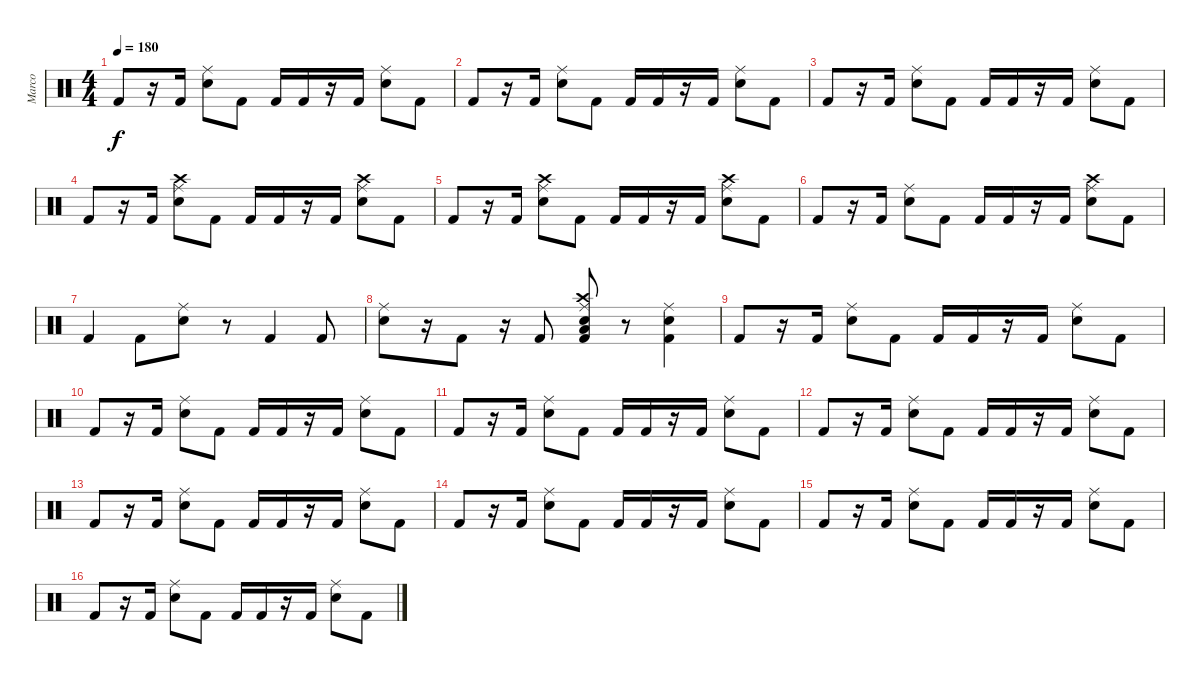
\track ("Marco" "Marco") {instrument percussion}
\staff {score}
\articulation defaults
\ts (4 4)
\tempo 180
\clef neutral
\ks c "Kick (hit) 2".8{dy f}
r.16 "Kick (hit) 2".16 ("Electric Snare (hit)" "Ride (middle)").8 "Kick (hit) 2".8 "Kick (hit) 2".16 "Kick (hit) 2".16 r.16 "Kick (hit) 2".16 ("Electric Snare (hit)" "Ride (middle)").8 "Kick (hit) 2".8 |
"Kick (hit) 2".8 r.16 "Kick (hit) 2".16 ("Electric Snare (hit)" "Ride (middle)").8 "Kick (hit) 2".8 "Kick (hit) 2".16 "Kick (hit) 2".16 r.16 "Kick (hit) 2".16 ("Electric Snare (hit)" "Ride (middle)").8 "Kick (hit) 2".8 |
"Kick (hit) 2".8 r.16 "Kick (hit) 2".16 ("Electric Snare (hit)" "Ride (middle)").8 "Kick (hit) 2".8 "Kick (hit) 2".16 "Kick (hit) 2".16 r.16 "Kick (hit) 2".16 ("Electric Snare (hit)" "Ride (middle)").8 "Kick (hit) 2".8 |
"Kick (hit) 2".8 r.16 "Kick (hit) 2".16 ("Electric Snare (hit)" "Ride (middle)" "Crash high (hit)").8 "Kick (hit) 2".8 "Kick (hit) 2".16 "Kick (hit) 2".16 r.16 "Kick (hit) 2".16 ("Electric Snare (hit)" "Ride (middle)" "Crash high (hit)").8 "Kick (hit) 2".8 |
"Kick (hit) 2".8 r.16 "Kick (hit) 2".16 ("Electric Snare (hit)" "Ride (middle)" "Crash high (hit)").8 "Kick (hit) 2".8 "Kick (hit) 2".16 "Kick (hit) 2".16 r.16 "Kick (hit) 2".16 ("Electric Snare (hit)" "Ride (middle)" "Crash high (hit)").8 "Kick (hit) 2".8 |
"Kick (hit) 2".8 r.16 "Kick (hit) 2".16 ("Electric Snare (hit)" "Ride (middle)").8 "Kick (hit) 2".8 "Kick (hit) 2".16 "Kick (hit) 2".16 r.16 "Kick (hit) 2".16 ("Electric Snare (hit)" "Ride (middle)" "Crash high (hit)").8 "Kick (hit) 2".8 |
"Kick (hit) 2".4 "Kick (hit) 2".8 ("Electric Snare (hit)" "Ride (middle)").8 r.8 "Kick (hit) 2".4 "Kick (hit) 2".8 |
("Electric Snare (hit)" "Ride (middle)").8 r.16 "Kick (hit) 2".8 r.16 "Kick (hit) 2".8 ("Kick (hit) 2" "Ride (middle)" "Electric Snare (hit)" "Low Tom (hit)" "Crash high (hit)").8 r.8 ("Kick (hit) 2" "Electric Snare (hit)" "Ride (middle)").4 |
"Kick (hit) 2".8 r.16 "Kick (hit) 2".16 ("Electric Snare (hit)" "Ride (middle)").8 "Kick (hit) 2".8 "Kick (hit) 2".16 "Kick (hit) 2".16 r.16 "Kick (hit) 2".16 ("Electric Snare (hit)" "Ride (middle)").8 "Kick (hit) 2".8 |
"Kick (hit) 2".8 r.16 "Kick (hit) 2".16 ("Electric Snare (hit)" "Ride (middle)").8 "Kick (hit) 2".8 "Kick (hit) 2".16 "Kick (hit) 2".16 r.16 "Kick (hit) 2".16 ("Electric Snare (hit)" "Ride (middle)").8 "Kick (hit) 2".8 |
"Kick (hit) 2".8 r.16 "Kick (hit) 2".16 ("Electric Snare (hit)" "Ride (middle)").8 "Kick (hit) 2".8 "Kick (hit) 2".16 "Kick (hit) 2".16 r.16 "Kick (hit) 2".16 ("Electric Snare (hit)" "Ride (middle)").8 "Kick (hit) 2".8 |
"Kick (hit) 2".8 r.16 "Kick (hit) 2".16 ("Electric Snare (hit)" "Ride (middle)").8 "Kick (hit) 2".8 "Kick (hit) 2".16 "Kick (hit) 2".16 r.16 "Kick (hit) 2".16 ("Electric Snare (hit)" "Ride (middle)").8 "Kick (hit) 2".8 |
"Kick (hit) 2".8 r.16 "Kick (hit) 2".16 ("Electric Snare (hit)" "Ride (middle)").8 "Kick (hit) 2".8 "Kick (hit) 2".16 "Kick (hit) 2".16 r.16 "Kick (hit) 2".16 ("Electric Snare (hit)" "Ride (middle)").8 "Kick (hit) 2".8 |
"Kick (hit) 2".8 r.16 "Kick (hit) 2".16 ("Electric Snare (hit)" "Ride (middle)").8 "Kick (hit) 2".8 "Kick (hit) 2".16 "Kick (hit) 2".16 r.16 "Kick (hit) 2".16 ("Electric Snare (hit)" "Ride (middle)").8 "Kick (hit) 2".8 |
"Kick (hit) 2".8 r.16 "Kick (hit) 2".16 ("Electric Snare (hit)" "Ride (middle)").8 "Kick (hit) 2".8 "Kick (hit) 2".16 "Kick (hit) 2".16 r.16 "Kick (hit) 2".16 ("Electric Snare (hit)" "Ride (middle)").8 "Kick (hit) 2".8 |
"Kick (hit) 2".8 r.16 "Kick (hit) 2".16 ("Electric Snare (hit)" "Ride (middle)").8 "Kick (hit) 2".8 "Kick (hit) 2".16 "Kick (hit) 2".16 r.16 "Kick (hit) 2".16 ("Electric Snare (hit)" "Ride (middle)").8 "Kick (hit) 2".8
